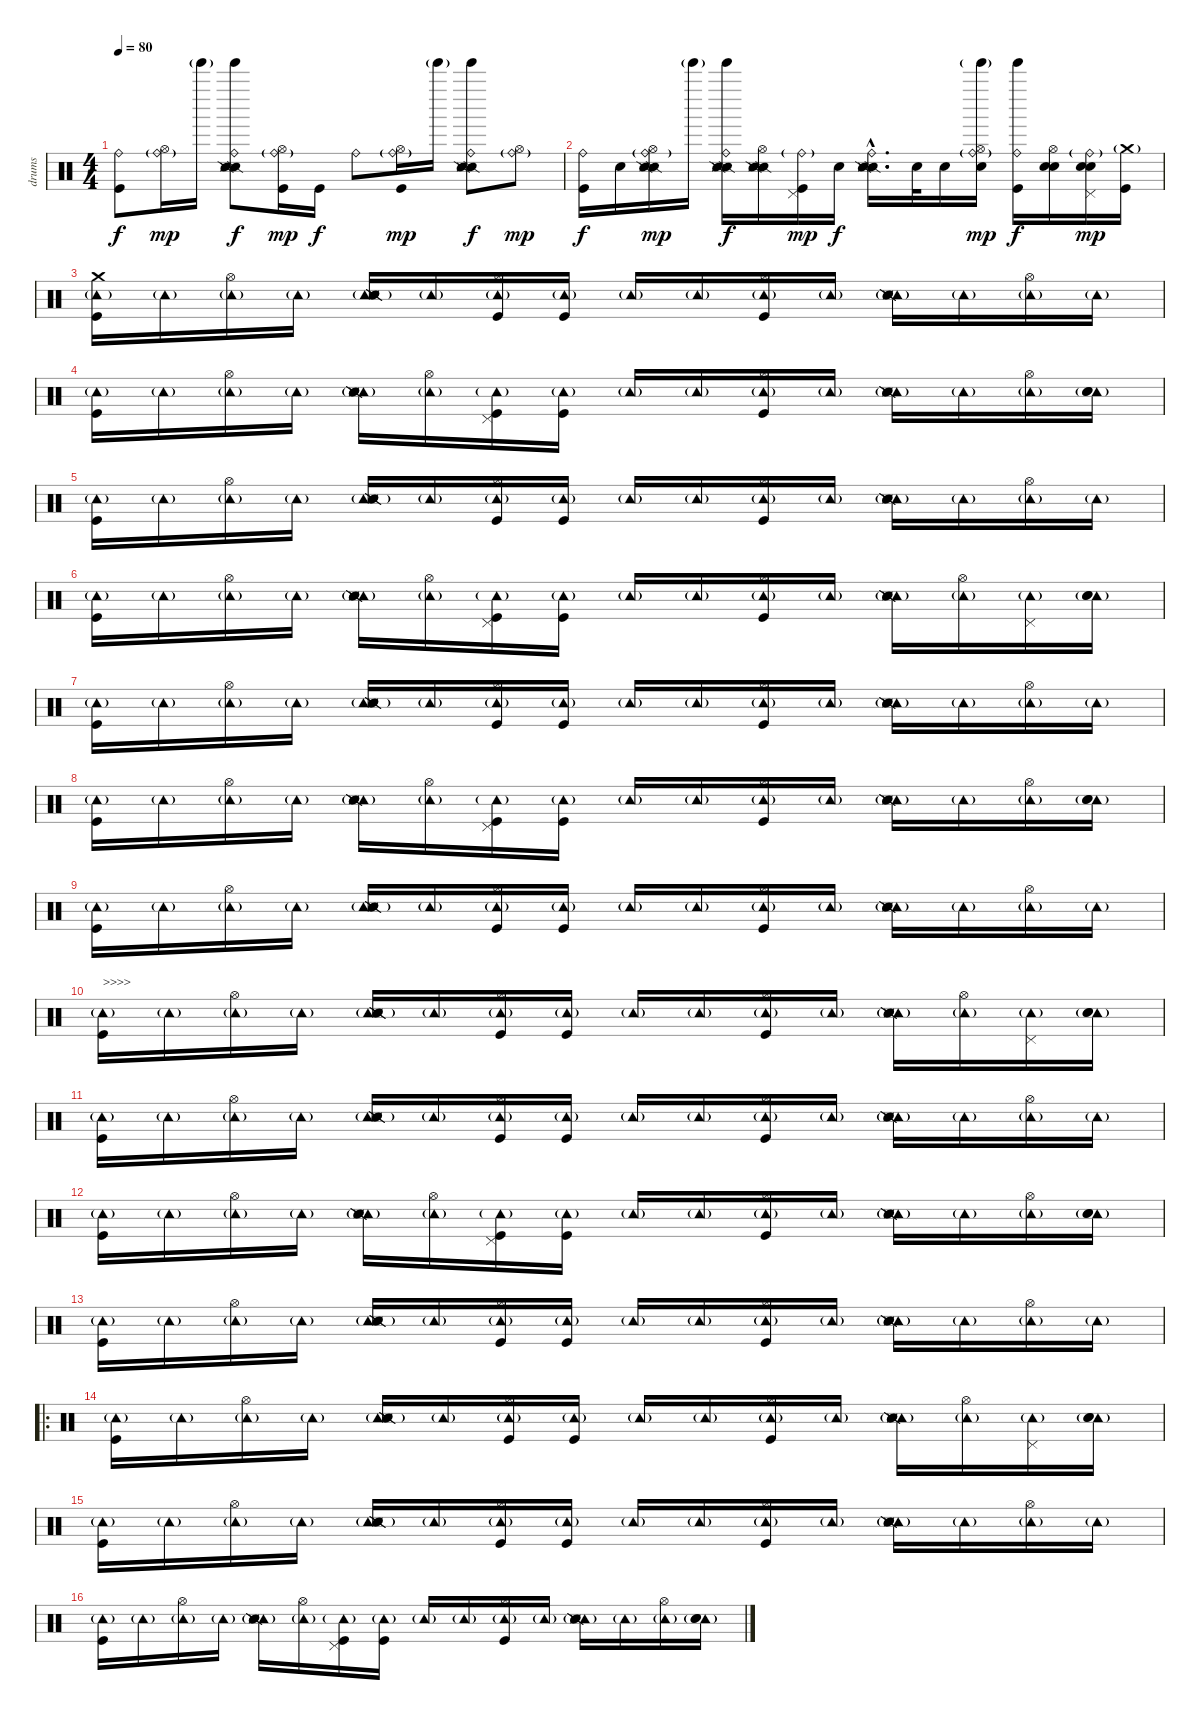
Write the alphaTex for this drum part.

\track ("drums" "drums") {instrument percussion}
\staff {score}
\articulation defaults
\ts (4 4)
\tempo 80
\clef neutral
\ks c
("Ride (bell)" "Kick (hit)").8{dy f} ("Ride (bell)"{g} "Hi-Hat (open)").16{dy mp} "Tinkle Bell (hit)"{g}.16 ("Ride (bell)" "Snare (side stick) 2" "Snare (side stick) 2" "Metronome (hit)" "Metronome (hit)" "Tinkle Bell (hit)").8{dy f} ("Ride (bell)"{g} "Hi-Hat (open)" "Kick (hit)").16{dy mp} "Kick (hit)".16{dy f} "Ride (bell)".8 ("Ride (bell)"{g} "Hi-Hat (open)" "Kick (hit)").16{dy mp} "Tinkle Bell (hit)"{g}.16 ("Ride (bell)" "Snare (side stick) 2" "Snare (side stick) 2" "Metronome (hit)" "Metronome (hit)" "Tinkle Bell (hit)").8{dy f} ("Ride (bell)"{g} "Hi-Hat (open)").8{dy mp} |
("Ride (bell)" "Kick (hit)").16{dy f} "Snare (hit) 2".16 ("Ride (bell)"{g} "Hi-Hat (open)" "Snare (side stick) 2" "Snare (side stick) 2" "Metronome (hit)").16{dy mp} "Tinkle Bell (hit)"{g}.16 ("Ride (bell)" "Snare (side stick) 2" "Snare (side stick) 2" "Metronome (hit)" "Metronome (hit)" "Tinkle Bell (hit)").16{dy f} ("Hi-Hat (open)" "Snare (side stick) 2" "Snare (side stick) 2" "Metronome (hit)" "Metronome (hit)").16 ("Ride (bell)"{g} "Pedal Hi-Hat (hit)" "Kick (hit)").16{dy mp} "Snare (hit) 2".16{dy f} ("Ride (bell)"{hac} "Snare (side stick) 2"{hac} "Snare (side stick) 2"{hac} "Metronome (hit)"{hac} "Metronome (hit)"{hac}).16{d} "Snare (hit) 2".32 "Snare (hit) 2".16 ("Ride (bell)"{g} "Hi-Hat (open)" "Snare (hit) 2" "Tinkle Bell (hit)"{g}).16{dy mp} ("Ride (bell)" "Tinkle Bell (hit)" "Kick (hit)").16{dy f} ("Hi-Hat (open)" "Snare (hit) 2" "Snare (hit) 2").16 ("Ride (bell)"{g} "Pedal Hi-Hat (hit)" "Snare (hit) 2" "Snare (hit) 2").16{dy mp} ("Crash medium (hit)"{g} "Kick (hit)").16 |
("Tambourine (hit)"{g} "Crash medium (hit)" "Kick (hit)").16 "Tambourine (hit)"{g}.16 ("Tambourine (hit)"{g} "Hi-Hat (open)").16 "Tambourine (hit)"{g}.16 ("Tambourine (hit)"{g} "Snare (side stick) 2" "Snare (side stick) 2" "Metronome (hit)" "Metronome (hit)").16 "Tambourine (hit)"{g}.16 ("Tambourine (hit)"{g} "Hi-Hat (open)" "Kick (hit)").16 ("Tambourine (hit)"{g} "Kick (hit)").16 "Tambourine (hit)"{g}.16 "Tambourine (hit)"{g}.16 ("Tambourine (hit)"{g} "Hi-Hat (open)" "Kick (hit)").16 "Tambourine (hit)"{g}.16 ("Tambourine (hit)"{g} "Snare (side stick) 2" "Snare (side stick) 2" "Metronome (hit)" "Metronome (hit)").16 "Tambourine (hit)"{g}.16 ("Tambourine (hit)"{g} "Hi-Hat (open)").16 "Tambourine (hit)"{g}.16 |
("Tambourine (hit)"{g} "Kick (hit)").16 "Tambourine (hit)"{g}.16 ("Tambourine (hit)"{g} "Hi-Hat (open)").16 "Tambourine (hit)"{g}.16 ("Tambourine (hit)"{g} "Snare (side stick) 2" "Snare (side stick) 2" "Metronome (hit)" "Metronome (hit)").16 ("Tambourine (hit)"{g} "Hi-Hat (open)").16 ("Tambourine (hit)"{g} "Pedal Hi-Hat (hit)" "Kick (hit)").16 ("Tambourine (hit)"{g} "Kick (hit)").16 "Tambourine (hit)"{g}.16 "Tambourine (hit)"{g}.16 ("Tambourine (hit)"{g} "Hi-Hat (open)" "Kick (hit)").16 "Tambourine (hit)"{g}.16 ("Tambourine (hit)"{g} "Snare (side stick) 2" "Snare (side stick) 2" "Metronome (hit)" "Metronome (hit)").16 "Tambourine (hit)"{g}.16 ("Tambourine (hit)"{g} "Hi-Hat (open)").16 ("Tambourine (hit)"{g} "Snare (hit) 2" "Snare (hit) 2").16 |
("Tambourine (hit)"{g} "Kick (hit)").16 "Tambourine (hit)"{g}.16 ("Tambourine (hit)"{g} "Hi-Hat (open)").16 "Tambourine (hit)"{g}.16 ("Tambourine (hit)"{g} "Snare (side stick) 2" "Snare (side stick) 2" "Metronome (hit)" "Metronome (hit)").16 "Tambourine (hit)"{g}.16 ("Tambourine (hit)"{g} "Hi-Hat (open)" "Kick (hit)").16 ("Tambourine (hit)"{g} "Kick (hit)").16 "Tambourine (hit)"{g}.16 "Tambourine (hit)"{g}.16 ("Tambourine (hit)"{g} "Hi-Hat (open)" "Kick (hit)").16 "Tambourine (hit)"{g}.16 ("Tambourine (hit)"{g} "Snare (side stick) 2" "Snare (side stick) 2" "Metronome (hit)" "Metronome (hit)").16 "Tambourine (hit)"{g}.16 ("Tambourine (hit)"{g} "Hi-Hat (open)").16 "Tambourine (hit)"{g}.16 |
("Tambourine (hit)"{g} "Kick (hit)").16 "Tambourine (hit)"{g}.16 ("Tambourine (hit)"{g} "Hi-Hat (open)").16 "Tambourine (hit)"{g}.16 ("Tambourine (hit)"{g} "Snare (side stick) 2" "Snare (side stick) 2" "Metronome (hit)" "Metronome (hit)").16 ("Tambourine (hit)"{g} "Hi-Hat (open)").16 ("Tambourine (hit)"{g} "Pedal Hi-Hat (hit)" "Kick (hit)").16 ("Tambourine (hit)"{g} "Kick (hit)").16 "Tambourine (hit)"{g}.16 "Tambourine (hit)"{g}.16 ("Tambourine (hit)"{g} "Hi-Hat (open)" "Kick (hit)").16 "Tambourine (hit)"{g}.16 ("Tambourine (hit)"{g} "Snare (side stick) 2" "Snare (side stick) 2" "Metronome (hit)" "Metronome (hit)").16 ("Tambourine (hit)"{g} "Hi-Hat (open)").16 ("Tambourine (hit)"{g} "Pedal Hi-Hat (hit)").16 ("Tambourine (hit)"{g} "Snare (hit) 2" "Snare (hit) 2").16 |
("Tambourine (hit)"{g} "Kick (hit)").16 "Tambourine (hit)"{g}.16 ("Tambourine (hit)"{g} "Hi-Hat (open)").16 "Tambourine (hit)"{g}.16 ("Tambourine (hit)"{g} "Snare (side stick) 2" "Snare (side stick) 2" "Metronome (hit)" "Metronome (hit)").16 "Tambourine (hit)"{g}.16 ("Tambourine (hit)"{g} "Hi-Hat (open)" "Kick (hit)").16 ("Tambourine (hit)"{g} "Kick (hit)").16 "Tambourine (hit)"{g}.16 "Tambourine (hit)"{g}.16 ("Tambourine (hit)"{g} "Hi-Hat (open)" "Kick (hit)").16 "Tambourine (hit)"{g}.16 ("Tambourine (hit)"{g} "Snare (side stick) 2" "Snare (side stick) 2" "Metronome (hit)" "Metronome (hit)").16 "Tambourine (hit)"{g}.16 ("Tambourine (hit)"{g} "Hi-Hat (open)").16 "Tambourine (hit)"{g}.16 |
("Tambourine (hit)"{g} "Kick (hit)").16 "Tambourine (hit)"{g}.16 ("Tambourine (hit)"{g} "Hi-Hat (open)").16 "Tambourine (hit)"{g}.16 ("Tambourine (hit)"{g} "Snare (side stick) 2" "Snare (side stick) 2" "Metronome (hit)" "Metronome (hit)").16 ("Tambourine (hit)"{g} "Hi-Hat (open)").16 ("Tambourine (hit)"{g} "Pedal Hi-Hat (hit)" "Kick (hit)").16 ("Tambourine (hit)"{g} "Kick (hit)").16 "Tambourine (hit)"{g}.16 "Tambourine (hit)"{g}.16 ("Tambourine (hit)"{g} "Hi-Hat (open)" "Kick (hit)").16 "Tambourine (hit)"{g}.16 ("Tambourine (hit)"{g} "Snare (side stick) 2" "Snare (side stick) 2" "Metronome (hit)" "Metronome (hit)").16 "Tambourine (hit)"{g}.16 ("Tambourine (hit)"{g} "Hi-Hat (open)").16 ("Tambourine (hit)"{g} "Snare (hit) 2" "Snare (hit) 2").16 |
("Tambourine (hit)"{g} "Kick (hit)").16 "Tambourine (hit)"{g}.16 ("Tambourine (hit)"{g} "Hi-Hat (open)").16 "Tambourine (hit)"{g}.16 ("Tambourine (hit)"{g} "Snare (side stick) 2" "Snare (side stick) 2" "Metronome (hit)" "Metronome (hit)").16 "Tambourine (hit)"{g}.16 ("Tambourine (hit)"{g} "Hi-Hat (open)" "Kick (hit)").16 ("Tambourine (hit)"{g} "Kick (hit)").16 "Tambourine (hit)"{g}.16 "Tambourine (hit)"{g}.16 ("Tambourine (hit)"{g} "Hi-Hat (open)" "Kick (hit)").16 "Tambourine (hit)"{g}.16 ("Tambourine (hit)"{g} "Snare (side stick) 2" "Snare (side stick) 2" "Metronome (hit)" "Metronome (hit)").16 "Tambourine (hit)"{g}.16 ("Tambourine (hit)"{g} "Hi-Hat (open)").16 "Tambourine (hit)"{g}.16 |
("Tambourine (hit)"{g} "Kick (hit)").16{txt ">>>>"} "Tambourine (hit)"{g}.16 ("Tambourine (hit)"{g} "Hi-Hat (open)").16 "Tambourine (hit)"{g}.16 ("Tambourine (hit)"{g} "Snare (side stick) 2" "Snare (side stick) 2" "Metronome (hit)" "Metronome (hit)").16 "Tambourine (hit)"{g}.16 ("Tambourine (hit)"{g} "Hi-Hat (open)" "Kick (hit)").16 ("Tambourine (hit)"{g} "Kick (hit)").16 "Tambourine (hit)"{g}.16 "Tambourine (hit)"{g}.16 ("Tambourine (hit)"{g} "Hi-Hat (open)" "Kick (hit)").16 "Tambourine (hit)"{g}.16 ("Tambourine (hit)"{g} "Snare (side stick) 2" "Snare (side stick) 2" "Metronome (hit)" "Metronome (hit)").16 ("Tambourine (hit)"{g} "Hi-Hat (open)").16 ("Tambourine (hit)"{g} "Pedal Hi-Hat (hit)").16 ("Tambourine (hit)"{g} "Snare (hit) 2" "Snare (hit) 2").16 |
("Tambourine (hit)"{g} "Kick (hit)").16 "Tambourine (hit)"{g}.16 ("Tambourine (hit)"{g} "Hi-Hat (open)").16 "Tambourine (hit)"{g}.16 ("Tambourine (hit)"{g} "Snare (side stick) 2" "Snare (side stick) 2" "Metronome (hit)" "Metronome (hit)").16 "Tambourine (hit)"{g}.16 ("Tambourine (hit)"{g} "Hi-Hat (open)" "Kick (hit)").16 ("Tambourine (hit)"{g} "Kick (hit)").16 "Tambourine (hit)"{g}.16 "Tambourine (hit)"{g}.16 ("Tambourine (hit)"{g} "Hi-Hat (open)" "Kick (hit)").16 "Tambourine (hit)"{g}.16 ("Tambourine (hit)"{g} "Snare (side stick) 2" "Snare (side stick) 2" "Metronome (hit)" "Metronome (hit)").16 "Tambourine (hit)"{g}.16 ("Tambourine (hit)"{g} "Hi-Hat (open)").16 "Tambourine (hit)"{g}.16 |
("Tambourine (hit)"{g} "Kick (hit)").16 "Tambourine (hit)"{g}.16 ("Tambourine (hit)"{g} "Hi-Hat (open)").16 "Tambourine (hit)"{g}.16 ("Tambourine (hit)"{g} "Snare (side stick) 2" "Snare (side stick) 2" "Metronome (hit)" "Metronome (hit)").16 ("Tambourine (hit)"{g} "Hi-Hat (open)").16 ("Tambourine (hit)"{g} "Pedal Hi-Hat (hit)" "Kick (hit)").16 ("Tambourine (hit)"{g} "Kick (hit)").16 "Tambourine (hit)"{g}.16 "Tambourine (hit)"{g}.16 ("Tambourine (hit)"{g} "Hi-Hat (open)" "Kick (hit)").16 "Tambourine (hit)"{g}.16 ("Tambourine (hit)"{g} "Snare (side stick) 2" "Snare (side stick) 2" "Metronome (hit)" "Metronome (hit)").16 "Tambourine (hit)"{g}.16 ("Tambourine (hit)"{g} "Hi-Hat (open)").16 ("Tambourine (hit)"{g} "Snare (hit) 2" "Snare (hit) 2").16 |
("Tambourine (hit)"{g} "Kick (hit)").16 "Tambourine (hit)"{g}.16 ("Tambourine (hit)"{g} "Hi-Hat (open)").16 "Tambourine (hit)"{g}.16 ("Tambourine (hit)"{g} "Snare (side stick) 2" "Snare (side stick) 2" "Metronome (hit)" "Metronome (hit)").16 "Tambourine (hit)"{g}.16 ("Tambourine (hit)"{g} "Hi-Hat (open)" "Kick (hit)").16 ("Tambourine (hit)"{g} "Kick (hit)").16 "Tambourine (hit)"{g}.16 "Tambourine (hit)"{g}.16 ("Tambourine (hit)"{g} "Hi-Hat (open)" "Kick (hit)").16 "Tambourine (hit)"{g}.16 ("Tambourine (hit)"{g} "Snare (side stick) 2" "Snare (side stick) 2" "Metronome (hit)" "Metronome (hit)").16 "Tambourine (hit)"{g}.16 ("Tambourine (hit)"{g} "Hi-Hat (open)").16 "Tambourine (hit)"{g}.16 |
\ro
("Tambourine (hit)"{g} "Kick (hit)").16 "Tambourine (hit)"{g}.16 ("Tambourine (hit)"{g} "Hi-Hat (open)").16 "Tambourine (hit)"{g}.16 ("Tambourine (hit)"{g} "Snare (side stick) 2" "Snare (side stick) 2" "Metronome (hit)" "Metronome (hit)").16 "Tambourine (hit)"{g}.16 ("Tambourine (hit)"{g} "Hi-Hat (open)" "Kick (hit)").16 ("Tambourine (hit)"{g} "Kick (hit)").16 "Tambourine (hit)"{g}.16 "Tambourine (hit)"{g}.16 ("Tambourine (hit)"{g} "Hi-Hat (open)" "Kick (hit)").16 "Tambourine (hit)"{g}.16 ("Tambourine (hit)"{g} "Snare (side stick) 2" "Snare (side stick) 2" "Metronome (hit)" "Metronome (hit)").16 ("Tambourine (hit)"{g} "Hi-Hat (open)").16 ("Tambourine (hit)"{g} "Pedal Hi-Hat (hit)").16 ("Tambourine (hit)"{g} "Snare (hit) 2" "Snare (hit) 2").16 |
("Tambourine (hit)"{g} "Kick (hit)").16 "Tambourine (hit)"{g}.16 ("Tambourine (hit)"{g} "Hi-Hat (open)").16 "Tambourine (hit)"{g}.16 ("Tambourine (hit)"{g} "Snare (side stick) 2" "Snare (side stick) 2" "Metronome (hit)" "Metronome (hit)").16 "Tambourine (hit)"{g}.16 ("Tambourine (hit)"{g} "Hi-Hat (open)" "Kick (hit)").16 ("Tambourine (hit)"{g} "Kick (hit)").16 "Tambourine (hit)"{g}.16 "Tambourine (hit)"{g}.16 ("Tambourine (hit)"{g} "Hi-Hat (open)" "Kick (hit)").16 "Tambourine (hit)"{g}.16 ("Tambourine (hit)"{g} "Snare (side stick) 2" "Snare (side stick) 2" "Metronome (hit)" "Metronome (hit)").16 "Tambourine (hit)"{g}.16 ("Tambourine (hit)"{g} "Hi-Hat (open)").16 "Tambourine (hit)"{g}.16 |
("Tambourine (hit)"{g} "Kick (hit)").16 "Tambourine (hit)"{g}.16 ("Tambourine (hit)"{g} "Hi-Hat (open)").16 "Tambourine (hit)"{g}.16 ("Tambourine (hit)"{g} "Snare (side stick) 2" "Snare (side stick) 2" "Metronome (hit)" "Metronome (hit)").16 ("Tambourine (hit)"{g} "Hi-Hat (open)").16 ("Tambourine (hit)"{g} "Pedal Hi-Hat (hit)" "Kick (hit)").16 ("Tambourine (hit)"{g} "Kick (hit)").16 "Tambourine (hit)"{g}.16 "Tambourine (hit)"{g}.16 ("Tambourine (hit)"{g} "Hi-Hat (open)" "Kick (hit)").16 "Tambourine (hit)"{g}.16 ("Tambourine (hit)"{g} "Snare (side stick) 2" "Snare (side stick) 2" "Metronome (hit)" "Metronome (hit)").16 "Tambourine (hit)"{g}.16 ("Tambourine (hit)"{g} "Hi-Hat (open)").16 ("Tambourine (hit)"{g} "Snare (hit) 2" "Snare (hit) 2").16
